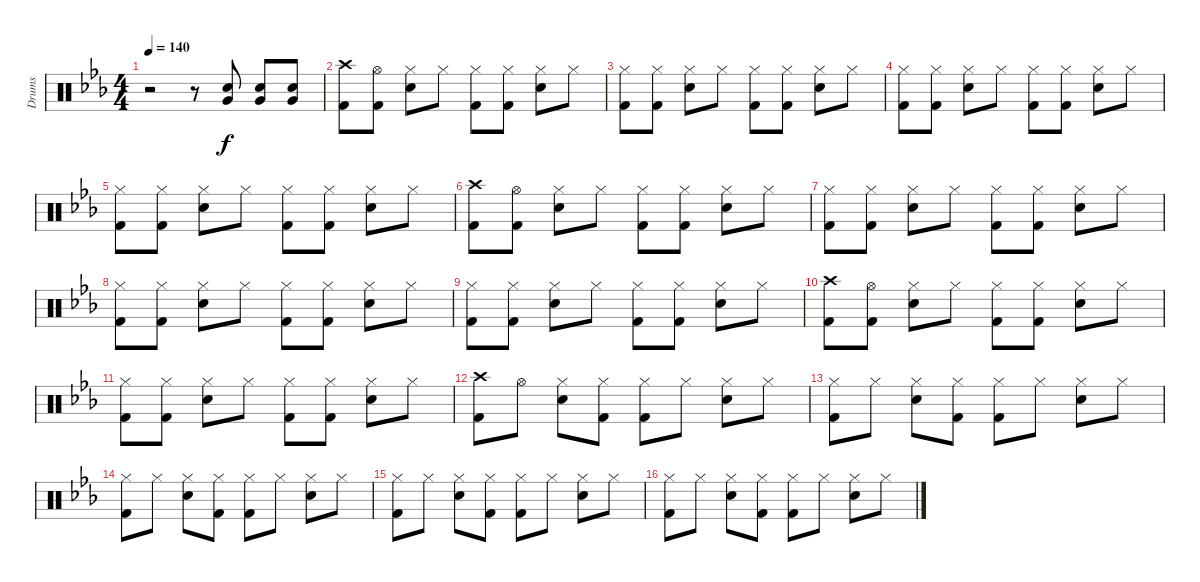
\track ("Drums" "Drums") {instrument percussion}
\staff {score}
\articulation defaults
\ts (4 4)
\tempo 140
\clef neutral
\ks eb
r.2{dy f} r.8 ("Electric Snare (hit)" "Very Low Tom (hit)").8 ("Electric Snare (hit)" "Very Low Tom (hit)").8 ("Electric Snare (hit)" "Very Low Tom (hit)").8 |
("Crash high (hit)" "Kick (hit) 2").8 ("Hi-Hat (open)" "Kick (hit) 2").8 ("Hi-Hat (closed)" "Electric Snare (hit)").8 "Hi-Hat (closed)".8 ("Hi-Hat (closed)" "Kick (hit) 2").8 ("Hi-Hat (closed)" "Kick (hit) 2").8 ("Hi-Hat (closed)" "Electric Snare (hit)").8 "Hi-Hat (closed)".8 |
("Hi-Hat (closed)" "Kick (hit) 2").8 ("Hi-Hat (closed)" "Kick (hit) 2").8 ("Hi-Hat (closed)" "Electric Snare (hit)").8 "Hi-Hat (closed)".8 ("Hi-Hat (closed)" "Kick (hit) 2").8 ("Hi-Hat (closed)" "Kick (hit) 2").8 ("Hi-Hat (closed)" "Electric Snare (hit)").8 "Hi-Hat (closed)".8 |
("Hi-Hat (closed)" "Kick (hit) 2").8 ("Hi-Hat (closed)" "Kick (hit) 2").8 ("Hi-Hat (closed)" "Electric Snare (hit)").8 "Hi-Hat (closed)".8 ("Hi-Hat (closed)" "Kick (hit) 2").8 ("Hi-Hat (closed)" "Kick (hit) 2").8 ("Hi-Hat (closed)" "Electric Snare (hit)").8 "Hi-Hat (closed)".8 |
("Hi-Hat (closed)" "Kick (hit) 2").8 ("Hi-Hat (closed)" "Kick (hit) 2").8 ("Hi-Hat (closed)" "Electric Snare (hit)").8 "Hi-Hat (closed)".8 ("Hi-Hat (closed)" "Kick (hit) 2").8 ("Hi-Hat (closed)" "Kick (hit) 2").8 ("Hi-Hat (closed)" "Electric Snare (hit)").8 "Hi-Hat (closed)".8 |
("Crash high (hit)" "Kick (hit) 2").8 ("Hi-Hat (open)" "Kick (hit) 2").8 ("Hi-Hat (closed)" "Electric Snare (hit)").8 "Hi-Hat (closed)".8 ("Hi-Hat (closed)" "Kick (hit) 2").8 ("Hi-Hat (closed)" "Kick (hit) 2").8 ("Hi-Hat (closed)" "Electric Snare (hit)").8 "Hi-Hat (closed)".8 |
("Hi-Hat (closed)" "Kick (hit) 2").8 ("Hi-Hat (closed)" "Kick (hit) 2").8 ("Hi-Hat (closed)" "Electric Snare (hit)").8 "Hi-Hat (closed)".8 ("Hi-Hat (closed)" "Kick (hit) 2").8 ("Hi-Hat (closed)" "Kick (hit) 2").8 ("Hi-Hat (closed)" "Electric Snare (hit)").8 "Hi-Hat (closed)".8 |
("Hi-Hat (closed)" "Kick (hit) 2").8 ("Hi-Hat (closed)" "Kick (hit) 2").8 ("Hi-Hat (closed)" "Electric Snare (hit)").8 "Hi-Hat (closed)".8 ("Hi-Hat (closed)" "Kick (hit) 2").8 ("Hi-Hat (closed)" "Kick (hit) 2").8 ("Hi-Hat (closed)" "Electric Snare (hit)").8 "Hi-Hat (closed)".8 |
("Hi-Hat (closed)" "Kick (hit) 2").8 ("Hi-Hat (closed)" "Kick (hit) 2").8 ("Hi-Hat (closed)" "Electric Snare (hit)").8 "Hi-Hat (closed)".8 ("Hi-Hat (closed)" "Kick (hit) 2").8 ("Hi-Hat (closed)" "Kick (hit) 2").8 ("Hi-Hat (closed)" "Electric Snare (hit)").8 "Hi-Hat (closed)".8 |
("Crash high (hit)" "Kick (hit) 2").8 ("Hi-Hat (open)" "Kick (hit) 2").8 ("Hi-Hat (closed)" "Electric Snare (hit)").8 "Hi-Hat (closed)".8 ("Hi-Hat (closed)" "Kick (hit) 2").8 ("Hi-Hat (closed)" "Kick (hit) 2").8 ("Hi-Hat (closed)" "Electric Snare (hit)").8 "Hi-Hat (closed)".8 |
("Hi-Hat (closed)" "Kick (hit) 2").8 ("Hi-Hat (closed)" "Kick (hit) 2").8 ("Hi-Hat (closed)" "Electric Snare (hit)").8 "Hi-Hat (closed)".8 ("Hi-Hat (closed)" "Kick (hit) 2").8 ("Hi-Hat (closed)" "Kick (hit) 2").8 ("Hi-Hat (closed)" "Electric Snare (hit)").8 "Hi-Hat (closed)".8 |
("Crash high (hit)" "Kick (hit) 2").8 "Hi-Hat (open)".8 ("Hi-Hat (closed)" "Electric Snare (hit)").8 ("Hi-Hat (closed)" "Kick (hit) 2").8 ("Hi-Hat (closed)" "Kick (hit) 2").8 "Hi-Hat (closed)".8 ("Hi-Hat (closed)" "Electric Snare (hit)").8 "Hi-Hat (closed)".8 |
("Hi-Hat (closed)" "Kick (hit) 2").8 "Hi-Hat (closed)".8 ("Hi-Hat (closed)" "Electric Snare (hit)").8 ("Hi-Hat (closed)" "Kick (hit) 2").8 ("Hi-Hat (closed)" "Kick (hit) 2").8 "Hi-Hat (closed)".8 ("Hi-Hat (closed)" "Electric Snare (hit)").8 "Hi-Hat (closed)".8 |
("Hi-Hat (closed)" "Kick (hit) 2").8 "Hi-Hat (closed)".8 ("Hi-Hat (closed)" "Electric Snare (hit)").8 ("Hi-Hat (closed)" "Kick (hit) 2").8 ("Hi-Hat (closed)" "Kick (hit) 2").8 "Hi-Hat (closed)".8 ("Hi-Hat (closed)" "Electric Snare (hit)").8 "Hi-Hat (closed)".8 |
("Hi-Hat (closed)" "Kick (hit) 2").8 "Hi-Hat (closed)".8 ("Hi-Hat (closed)" "Electric Snare (hit)").8 ("Hi-Hat (closed)" "Kick (hit) 2").8 ("Hi-Hat (closed)" "Kick (hit) 2").8 "Hi-Hat (closed)".8 ("Hi-Hat (closed)" "Electric Snare (hit)").8 "Hi-Hat (closed)".8 |
("Hi-Hat (closed)" "Kick (hit) 2").8 "Hi-Hat (closed)".8 ("Hi-Hat (closed)" "Electric Snare (hit)").8 ("Hi-Hat (closed)" "Kick (hit) 2").8 ("Hi-Hat (closed)" "Kick (hit) 2").8 "Hi-Hat (closed)".8 ("Hi-Hat (closed)" "Electric Snare (hit)").8 "Hi-Hat (closed)".8
